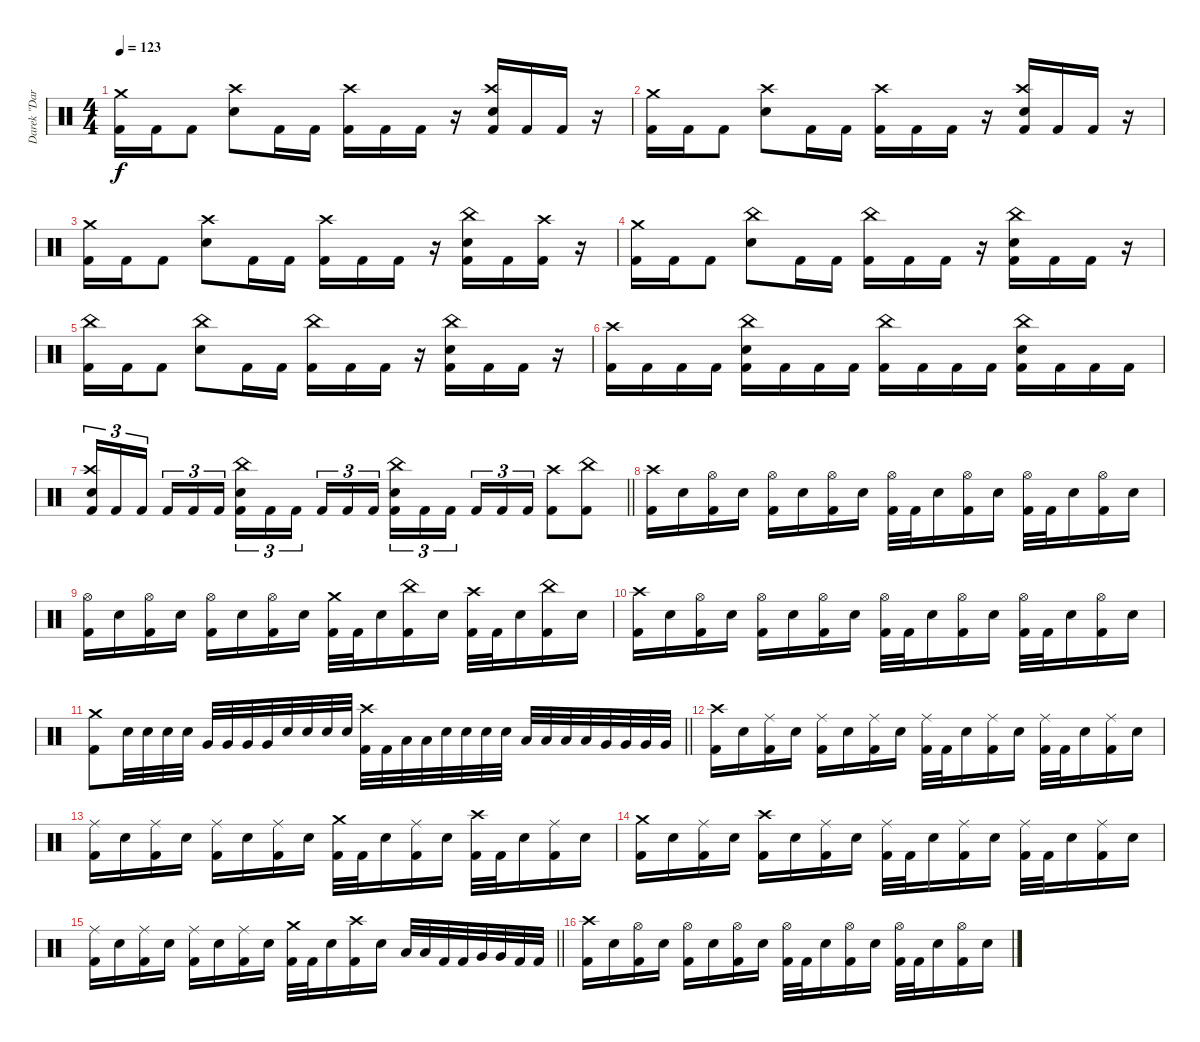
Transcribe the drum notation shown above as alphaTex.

\track ("Darek \"Daray\" Brzozowski " "Darek \"Dar") {instrument percussion}
\staff {score}
\articulation defaults
\ts (4 4)
\tempo 123
\clef neutral
\ks c
("Crash medium (hit)" "Kick (hit) 2").16{dy f} "Kick (hit) 2".16 "Kick (hit) 2".8 ("Crash high (hit)" "Electric Snare (hit)").8 "Kick (hit) 2".16 "Kick (hit) 2".16 ("Crash high (hit)" "Kick (hit) 2").16 "Kick (hit) 2".16 "Kick (hit) 2".16 r.16 ("Crash high (hit)" "Electric Snare (hit)" "Kick (hit) 2").16 "Kick (hit) 2".16 "Kick (hit) 2".16 r.16 |
("Crash medium (hit)" "Kick (hit) 2").16 "Kick (hit) 2".16 "Kick (hit) 2".8 ("Crash high (hit)" "Electric Snare (hit)").8 "Kick (hit) 2".16 "Kick (hit) 2".16 ("Crash high (hit)" "Kick (hit) 2").16 "Kick (hit) 2".16 "Kick (hit) 2".16 r.16 ("Crash high (hit)" "Electric Snare (hit)" "Kick (hit) 2").16 "Kick (hit) 2".16 "Kick (hit) 2".16 r.16 |
("Crash medium (hit)" "Kick (hit) 2").16 "Kick (hit) 2".16 "Kick (hit) 2".8 ("Crash high (hit)" "Electric Snare (hit)").8 "Kick (hit) 2".16 "Kick (hit) 2".16 ("Crash high (hit)" "Kick (hit) 2").16 "Kick (hit) 2".16 "Kick (hit) 2".16 r.16 ("China (hit)" "Electric Snare (hit)" "Kick (hit) 2").16 "Kick (hit) 2".16 ("Crash high (hit)" "Kick (hit) 2").16 r.16 |
("Crash medium (hit)" "Kick (hit) 2").16 "Kick (hit) 2".16 "Kick (hit) 2".8 ("China (hit)" "Electric Snare (hit)").8 "Kick (hit) 2".16 "Kick (hit) 2".16 ("China (hit)" "Kick (hit) 2").16 "Kick (hit) 2".16 "Kick (hit) 2".16 r.16 ("China (hit)" "Electric Snare (hit)" "Kick (hit) 2").16 "Kick (hit) 2".16 "Kick (hit) 2".16 r.16 |
("China (hit)" "Kick (hit) 2").16 "Kick (hit) 2".16 "Kick (hit) 2".8 ("China (hit)" "Electric Snare (hit)").8 "Kick (hit) 2".16 "Kick (hit) 2".16 ("China (hit)" "Kick (hit) 2").16 "Kick (hit) 2".16 "Kick (hit) 2".16 r.16 ("China (hit)" "Electric Snare (hit)" "Kick (hit) 2").16 "Kick (hit) 2".16 "Kick (hit) 2".16 r.16 |
("Crash high (hit)" "Kick (hit) 2").16 "Kick (hit) 2".16 "Kick (hit) 2".16 "Kick (hit) 2".16 ("China (hit)" "Electric Snare (hit)" "Kick (hit) 2").16 "Kick (hit) 2".16 "Kick (hit) 2".16 "Kick (hit) 2".16 ("China (hit)" "Kick (hit) 2").16 "Kick (hit) 2".16 "Kick (hit) 2".16 "Kick (hit) 2".16 ("China (hit)" "Electric Snare (hit)" "Kick (hit) 2").16 "Kick (hit) 2".16 "Kick (hit) 2".16 "Kick (hit) 2".16 |
\barLineRight lightlight
("Crash high (hit)" "Electric Snare (hit)" "Kick (hit) 2").16{tu (3 2)} "Kick (hit) 2".16{tu (3 2)} "Kick (hit) 2".16{tu (3 2) beam splitsecondary} "Kick (hit) 2".16{tu (3 2)} "Kick (hit) 2".16{tu (3 2)} "Kick (hit) 2".16{tu (3 2)} ("China (hit)" "Electric Snare (hit)" "Kick (hit) 2").16{tu (3 2)} "Kick (hit) 2".16{tu (3 2)} "Kick (hit) 2".16{tu (3 2) beam splitsecondary} "Kick (hit) 2".16{tu (3 2)} "Kick (hit) 2".16{tu (3 2)} "Kick (hit) 2".16{tu (3 2)} ("China (hit)" "Electric Snare (hit)" "Kick (hit) 2").16{tu (3 2)} "Kick (hit) 2".16{tu (3 2)} "Kick (hit) 2".16{tu (3 2) beam splitsecondary} "Kick (hit) 2".16{tu (3 2)} "Kick (hit) 2".16{tu (3 2)} "Kick (hit) 2".16{tu (3 2)} ("Crash high (hit)" "Kick (hit) 2").8 ("China (hit)" "Kick (hit) 2").8 |
("Crash high (hit)" "Kick (hit) 2").16 "Electric Snare (hit)".16 ("Hi-Hat (open)" "Kick (hit) 2").16 "Electric Snare (hit)".16 ("Hi-Hat (open)" "Kick (hit) 2").16 "Electric Snare (hit)".16 ("Hi-Hat (open)" "Kick (hit) 2").16 "Electric Snare (hit)".16 ("Hi-Hat (open)" "Kick (hit) 2").32 "Kick (hit) 2".32 "Electric Snare (hit)".16 ("Hi-Hat (open)" "Kick (hit) 2").16 "Electric Snare (hit)".16 ("Hi-Hat (open)" "Kick (hit) 2").32 "Kick (hit) 2".32 "Electric Snare (hit)".16 ("Hi-Hat (open)" "Kick (hit) 2").16 "Electric Snare (hit)".16 |
("Hi-Hat (open)" "Kick (hit) 2").16 "Electric Snare (hit)".16 ("Hi-Hat (open)" "Kick (hit) 2").16 "Electric Snare (hit)".16 ("Hi-Hat (open)" "Kick (hit) 2").16 "Electric Snare (hit)".16 ("Hi-Hat (open)" "Kick (hit) 2").16 "Electric Snare (hit)".16 ("Crash medium (hit)" "Kick (hit) 2").32 "Kick (hit) 2".32 "Electric Snare (hit)".16 ("China (hit)" "Kick (hit) 2").16 "Electric Snare (hit)".16 ("Crash high (hit)" "Kick (hit) 2").32 "Kick (hit) 2".32 "Electric Snare (hit)".16 ("China (hit)" "Kick (hit) 2").16 "Electric Snare (hit)".16 |
("Crash high (hit)" "Kick (hit) 2").16 "Electric Snare (hit)".16 ("Hi-Hat (open)" "Kick (hit) 2").16 "Electric Snare (hit)".16 ("Hi-Hat (open)" "Kick (hit) 2").16 "Electric Snare (hit)".16 ("Hi-Hat (open)" "Kick (hit) 2").16 "Electric Snare (hit)".16 ("Hi-Hat (open)" "Kick (hit) 2").32 "Kick (hit) 2".32 "Electric Snare (hit)".16 ("Hi-Hat (open)" "Kick (hit) 2").16 "Electric Snare (hit)".16 ("Hi-Hat (open)" "Kick (hit) 2").32 "Kick (hit) 2".32 "Electric Snare (hit)".16 ("Hi-Hat (open)" "Kick (hit) 2").16 "Electric Snare (hit)".16 |
\barLineRight lightlight
("Crash medium (hit)" "Kick (hit) 2").8 "Electric Snare (hit)".32 "Electric Snare (hit)".32 "Electric Snare (hit)".32 "Electric Snare (hit)".32 "Very Low Tom (hit)".32 "Very Low Tom (hit)".32 "Very Low Tom (hit)".32 "Very Low Tom (hit)".32 "Electric Snare (hit)".32 "Electric Snare (hit)".32 "Electric Snare (hit)".32 "Electric Snare (hit)".32 ("Crash high (hit)" "Kick (hit) 2").32 "Kick (hit) 2".32 "Low Floor Tom (hit)".32 "Low Floor Tom (hit)".32 "Electric Snare (hit)".32 "Electric Snare (hit)".32 "Electric Snare (hit)".32 "Electric Snare (hit)".32 "Low Tom (hit)".32 "Low Tom (hit)".32 "Low Tom (hit)".32 "Low Tom (hit)".32 "Very Low Tom (hit)".32 "Very Low Tom (hit)".32 "Very Low Tom (hit)".32 "Very Low Tom (hit)".32 |
("Crash high (hit)" "Kick (hit) 2").16 "Electric Snare (hit)".16 ("Ride (middle)" "Kick (hit) 2").16 "Electric Snare (hit)".16 ("Ride (middle)" "Kick (hit) 2").16 "Electric Snare (hit)".16 ("Ride (middle)" "Kick (hit) 2").16 "Electric Snare (hit)".16 ("Ride (middle)" "Kick (hit) 2").32 "Kick (hit) 2".32 "Electric Snare (hit)".16 ("Ride (middle)" "Kick (hit) 2").16 "Electric Snare (hit)".16 ("Ride (middle)" "Kick (hit) 2").32 "Kick (hit) 2".32 "Electric Snare (hit)".16 ("Ride (middle)" "Kick (hit) 2").16 "Electric Snare (hit)".16 |
("Ride (middle)" "Kick (hit) 2").16 "Electric Snare (hit)".16 ("Ride (middle)" "Kick (hit) 2").16 "Electric Snare (hit)".16 ("Ride (middle)" "Kick (hit) 2").16 "Electric Snare (hit)".16 ("Ride (middle)" "Kick (hit) 2").16 "Electric Snare (hit)".16 ("Crash medium (hit)" "Kick (hit) 2").32 "Kick (hit) 2".32 "Electric Snare (hit)".16 ("Ride (middle)" "Kick (hit) 2").16 "Electric Snare (hit)".16 ("Crash high (hit)" "Kick (hit) 2").32 "Kick (hit) 2".32 "Electric Snare (hit)".16 ("Ride (middle)" "Kick (hit) 2").16 "Electric Snare (hit)".16 |
("Crash medium (hit)" "Kick (hit) 2").16 "Electric Snare (hit)".16 ("Ride (middle)" "Kick (hit) 2").16 "Electric Snare (hit)".16 ("Crash high (hit)" "Kick (hit) 2").16 "Electric Snare (hit)".16 ("Ride (middle)" "Kick (hit) 2").16 "Electric Snare (hit)".16 ("Ride (middle)" "Kick (hit) 2").32 "Kick (hit) 2".32 "Electric Snare (hit)".16 ("Ride (middle)" "Kick (hit) 2").16 "Electric Snare (hit)".16 ("Ride (middle)" "Kick (hit) 2").32 "Kick (hit) 2".32 "Electric Snare (hit)".16 ("Ride (middle)" "Kick (hit) 2").16 "Electric Snare (hit)".16 |
\barLineRight lightlight
("Ride (middle)" "Kick (hit) 2").16 "Electric Snare (hit)".16 ("Ride (middle)" "Kick (hit) 2").16 "Electric Snare (hit)".16 ("Ride (middle)" "Kick (hit) 2").16 "Electric Snare (hit)".16 ("Ride (middle)" "Kick (hit) 2").16 "Electric Snare (hit)".16 ("Crash medium (hit)" "Kick (hit) 2").32 "Kick (hit) 2".32 "Electric Snare (hit)".16 ("Crash high (hit)" "Kick (hit) 2").16 "Electric Snare (hit)".16 "Low Tom (hit)".32 "Low Tom (hit)".32 "Kick (hit) 2".32 "Kick (hit) 2".32 "Very Low Tom (hit)".32 "Very Low Tom (hit)".32 "Kick (hit) 2".32 "Kick (hit) 2".32 |
("Crash high (hit)" "Kick (hit) 2").16 "Electric Snare (hit)".16 ("Hi-Hat (open)" "Kick (hit) 2").16 "Electric Snare (hit)".16 ("Hi-Hat (open)" "Kick (hit) 2").16 "Electric Snare (hit)".16 ("Hi-Hat (open)" "Kick (hit) 2").16 "Electric Snare (hit)".16 ("Hi-Hat (open)" "Kick (hit) 2").32 "Kick (hit) 2".32 "Electric Snare (hit)".16 ("Hi-Hat (open)" "Kick (hit) 2").16 "Electric Snare (hit)".16 ("Hi-Hat (open)" "Kick (hit) 2").32 "Kick (hit) 2".32 "Electric Snare (hit)".16 ("Hi-Hat (open)" "Kick (hit) 2").16 "Electric Snare (hit)".16
